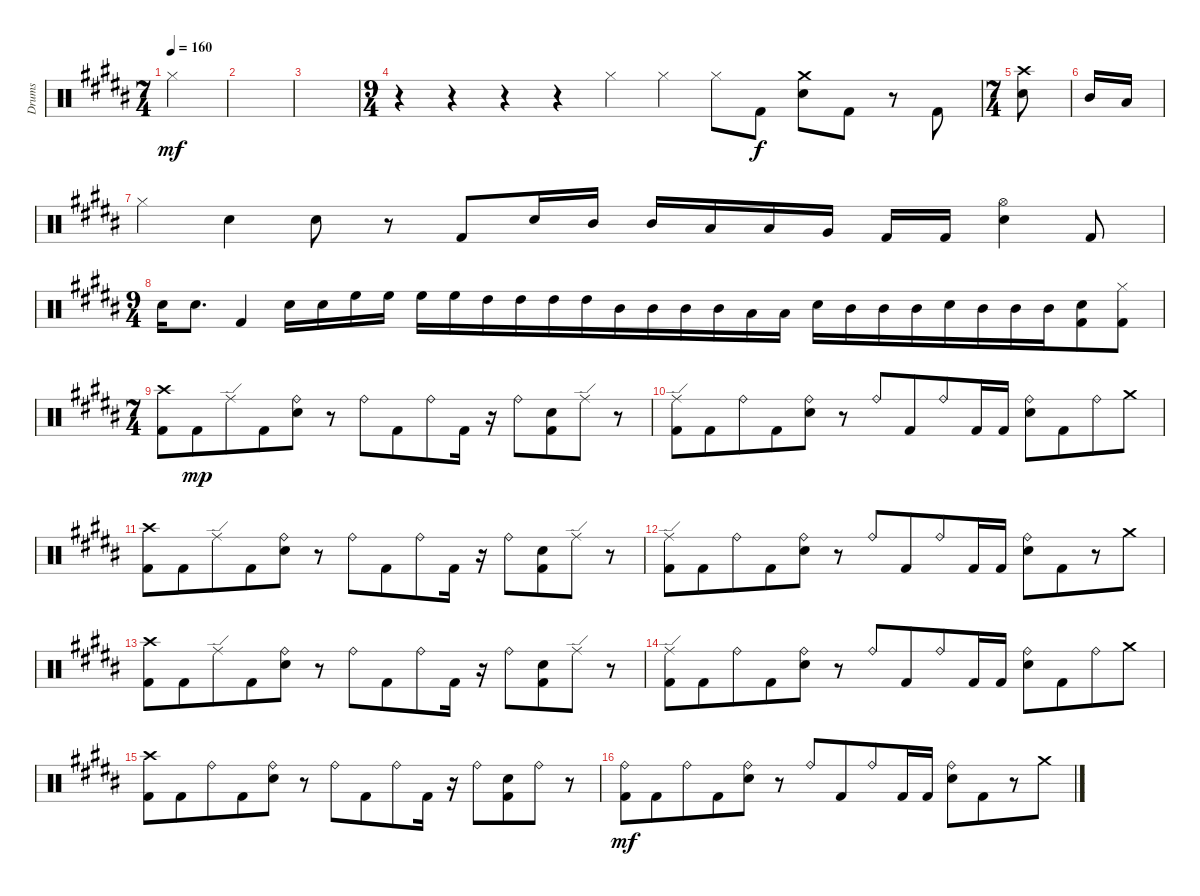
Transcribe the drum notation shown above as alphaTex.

\bracketExtendMode groupsimilarinstruments
\otherSystemsTrackNameOrientation horizontal
\track ("Drumkit" "Drums") {instrument percussion}
\staff {score}
\articulation defaults
\ts (7 4)
\tempo 160
\clef neutral
\ks b "Hi-Hat (closed)"{acc bb}.4{dy mf beam Down}
|
|
|
\ts (9 4)
r.4{beam Down} r.4{beam Down} r.4{beam Down} r.4{beam Down} "Hi-Hat (closed)"{acc bb}.4{beam Down} "Hi-Hat (closed)"{acc bb}.4{beam Down} "Hi-Hat (closed)"{acc bb}.8{beam Down} "Kick (hit) 2"{acc bb}.8{dy f beam Down} ("Snare (hit) 2"{acc bb} "Crash medium (hit)"{acc bb}).8{beam Down} "Kick (hit) 2"{acc bb}.8{beam Down} r.8{beam Down} "Kick (hit) 2"{acc bb}.8{beam Down} |
\ts (7 4)
("Crash high (hit)"{acc bb} "Snare (hit) 2"{acc bb}).8{beam Down} |
"Mid Tom (hit)"{acc bb}.16{beam Up} "Low Tom (hit)"{acc bb}.16{beam Up} |
"Hi-Hat (closed)"{acc bb}.4{beam Down} "Snare (hit) 2"{acc bb}.4{beam Down} "Snare (hit) 2"{acc bb}.8{beam Down} r.8{beam Down} "Kick (hit) 2"{acc bb}.8{beam Up} "Snare (hit) 2"{acc bb}.16{beam Up} "Mid Tom (hit)"{acc bb}.16{beam Up} "Mid Tom (hit)"{acc bb}.16{beam Up} "Low Tom (hit)"{acc bb}.16{beam Up} "Low Tom (hit)"{acc bb}.16{beam Up} "Very Low Tom (hit)"{acc bb}.16{beam Up} "Kick (hit) 2"{acc bb}.16{beam Up} "Kick (hit) 2"{acc bb}.16{beam Up} ("Snare (hit) 2"{acc bb} "Hi-Hat (open)"{acc bb}).4{beam Down} "Kick (hit) 2"{acc bb}.8{beam Up} |
\ts (9 4)
\beaming (8 6 6 6)
"Snare (hit) 2"{acc bb}.16{beam Down} "Snare (hit) 2"{acc bb}.8{d beam Down} "Kick (hit) 2"{acc bb}.4{beam Up} "Snare (hit) 2"{acc bb}.16{beam Down} "Snare (hit) 2"{acc bb}.16{beam Down} "High Floor Tom (hit)"{acc bb}.16{beam Down} "High Floor Tom (hit)"{acc bb}.16{beam Down} "High Floor Tom (hit)"{acc bb}.16{beam Down} "High Floor Tom (hit)"{acc bb}.16{beam Down} "High Tom (hit)"{acc bb}.16{beam Down} "High Tom (hit)"{acc bb}.16{beam Down} "High Tom (hit)"{acc bb}.16{beam Down} "High Tom (hit)"{acc bb}.16{beam Down} "Mid Tom (hit)"{acc bb}.16{beam Down} "Mid Tom (hit)"{acc bb}.16{beam Down} "Mid Tom (hit)"{acc bb}.16{beam Down} "Mid Tom (hit)"{acc bb}.16{beam Down} "Low Tom (hit)"{acc bb}.16{beam Down} "Low Tom (hit)"{acc bb}.16{beam Down} "Snare (hit) 2"{acc bb}.16{beam Down} "Mid Tom (hit)"{acc bb}.16{beam Down} "Mid Tom (hit)"{acc bb}.16{beam Down} "Mid Tom (hit)"{acc bb}.16{beam Down} "Snare (hit) 2"{acc bb}.16{beam Down} "Mid Tom (hit)"{acc bb}.16{beam Down} "Mid Tom (hit)"{acc bb}.16{beam Down} "Mid Tom (hit)"{acc bb}.16{beam Down} ("Snare (hit) 2"{acc bb} "Kick (hit) 2"{acc bb}).8{beam Down} ("Kick (hit) 2"{acc bb} "Hi-Hat (closed)"{acc bb}).8{beam Down} |
\ts (7 4)
\beaming (8 6 4 4)
("Crash high (hit)"{acc bb} "Kick (hit) 2"{acc bb}).8{beam Down} "Kick (hit) 2"{acc bb}.8{dy mp beam Down} "Ride (edge)"{acc bb}.8{beam Down} "Kick (hit) 2"{acc bb}.8{beam Down} ("Snare (hit) 2"{acc bb} "Ride (bell)"{acc bb}).8{beam Down} r.8{beam Down} "Ride (bell)"{acc bb}.8{beam Down} "Kick (hit) 2"{acc bb}.8{beam Down} "Ride (bell)"{acc bb}.8{beam Down} "Kick (hit) 2"{acc bb}.16{beam Down} r.16{beam Down} "Ride (bell)"{acc bb}.8{beam Down} ("Kick (hit) 2"{acc bb} "Snare (hit) 2"{acc bb}).8{beam Down} "Ride (edge)"{acc bb}.8{beam Down} r.8{beam Down} |
("Kick (hit) 2"{acc bb} "Ride (edge)"{acc bb}).8{beam Down} "Kick (hit) 2"{acc bb}.8{beam Down} "Ride (bell)"{acc bb}.8{beam Down} "Kick (hit) 2"{acc bb}.8{beam Down} ("Snare (hit) 2"{acc bb} "Ride (bell)"{acc bb}).8{beam Down} r.8{beam Down} "Ride (bell)"{acc bb}.8{beam Up} "Kick (hit) 2"{acc bb}.8{beam Up} "Ride (bell)"{acc bb}.8{beam Up} "Kick (hit) 2"{acc bb}.16{beam Up} "Kick (hit) 2"{acc bb}.16{beam Up} ("Snare (hit) 2"{acc bb} "Ride (bell)"{acc bb}).8{beam Down} "Kick (hit) 2"{acc bb}.8{beam Down} "Ride (bell)"{acc bb}.8{beam Down} "Crash medium (hit)"{acc bb}.8{beam Down} |
("Crash high (hit)"{acc bb} "Kick (hit) 2"{acc bb}).8{beam Down} "Kick (hit) 2"{acc bb}.8{beam Down} "Ride (edge)"{acc bb}.8{beam Down} "Kick (hit) 2"{acc bb}.8{beam Down} ("Snare (hit) 2"{acc bb} "Ride (bell)"{acc bb}).8{beam Down} r.8{beam Down} "Ride (bell)"{acc bb}.8{beam Down} "Kick (hit) 2"{acc bb}.8{beam Down} "Ride (bell)"{acc bb}.8{beam Down} "Kick (hit) 2"{acc bb}.16{beam Down} r.16{beam Down} "Ride (bell)"{acc bb}.8{beam Down} ("Kick (hit) 2"{acc bb} "Snare (hit) 2"{acc bb}).8{beam Down} "Ride (edge)"{acc bb}.8{beam Down} r.8{beam Down} |
("Kick (hit) 2"{acc bb} "Ride (edge)"{acc bb}).8{beam Down} "Kick (hit) 2"{acc bb}.8{beam Down} "Ride (bell)"{acc bb}.8{beam Down} "Kick (hit) 2"{acc bb}.8{beam Down} ("Snare (hit) 2"{acc bb} "Ride (bell)"{acc bb}).8{beam Down} r.8{beam Down} "Ride (bell)"{acc bb}.8{beam Up} "Kick (hit) 2"{acc bb}.8{beam Up} "Ride (bell)"{acc bb}.8{beam Up} "Kick (hit) 2"{acc bb}.16{beam Up} "Kick (hit) 2"{acc bb}.16{beam Up} ("Snare (hit) 2"{acc bb} "Ride (bell)"{acc bb}).8{beam Down} "Kick (hit) 2"{acc bb}.8{beam Down} r.8{beam Down} "Crash medium (hit)"{acc bb}.8{beam Down} |
("Crash high (hit)"{acc bb} "Kick (hit) 2"{acc bb}).8{beam Down} "Kick (hit) 2"{acc bb}.8{beam Down} "Ride (edge)"{acc bb}.8{beam Down} "Kick (hit) 2"{acc bb}.8{beam Down} ("Snare (hit) 2"{acc bb} "Ride (bell)"{acc bb}).8{beam Down} r.8{beam Down} "Ride (bell)"{acc bb}.8{beam Down} "Kick (hit) 2"{acc bb}.8{beam Down} "Ride (bell)"{acc bb}.8{beam Down} "Kick (hit) 2"{acc bb}.16{beam Down} r.16{beam Down} "Ride (bell)"{acc bb}.8{beam Down} ("Kick (hit) 2"{acc bb} "Snare (hit) 2"{acc bb}).8{beam Down} "Ride (edge)"{acc bb}.8{beam Down} r.8{beam Down} |
("Kick (hit) 2"{acc bb} "Ride (edge)"{acc bb}).8{beam Down} "Kick (hit) 2"{acc bb}.8{beam Down} "Ride (bell)"{acc bb}.8{beam Down} "Kick (hit) 2"{acc bb}.8{beam Down} ("Snare (hit) 2"{acc bb} "Ride (bell)"{acc bb}).8{beam Down} r.8{beam Down} "Ride (bell)"{acc bb}.8{beam Up} "Kick (hit) 2"{acc bb}.8{beam Up} "Ride (bell)"{acc bb}.8{beam Up} "Kick (hit) 2"{acc bb}.16{beam Up} "Kick (hit) 2"{acc bb}.16{beam Up} ("Snare (hit) 2"{acc bb} "Ride (bell)"{acc bb}).8{beam Down} "Kick (hit) 2"{acc bb}.8{beam Down} "Ride (bell)"{acc bb}.8{beam Down} "Crash medium (hit)"{acc bb}.8{beam Down} |
("Crash high (hit)"{acc bb} "Kick (hit) 2"{acc bb}).8{beam Down} "Kick (hit) 2"{acc bb}.8{beam Down} "Ride (bell)"{acc bb}.8{beam Down} "Kick (hit) 2"{acc bb}.8{beam Down} ("Snare (hit) 2"{acc bb} "Ride (bell)"{acc bb}).8{beam Down} r.8{beam Down} "Ride (bell)"{acc bb}.8{beam Down} "Kick (hit) 2"{acc bb}.8{beam Down} "Ride (bell)"{acc bb}.8{beam Down} "Kick (hit) 2"{acc bb}.16{beam Down} r.16{beam Down} "Ride (bell)"{acc bb}.8{beam Down} ("Kick (hit) 2"{acc bb} "Snare (hit) 2"{acc bb}).8{beam Down} "Ride (bell)"{acc bb}.8{beam Down} r.8{beam Down} |
("Kick (hit) 2"{acc bb} "Ride (bell)"{acc bb}).8{dy mf beam Down} "Kick (hit) 2"{acc bb}.8{beam Down} "Ride (bell)"{acc bb}.8{beam Down} "Kick (hit) 2"{acc bb}.8{beam Down} ("Snare (hit) 2"{acc bb} "Ride (bell)"{acc bb}).8{beam Down} r.8{beam Down} "Ride (bell)"{acc bb}.8{beam Up} "Kick (hit) 2"{acc bb}.8{beam Up} "Ride (bell)"{acc bb}.8{beam Up} "Kick (hit) 2"{acc bb}.16{beam Up} "Kick (hit) 2"{acc bb}.16{beam Up} ("Snare (hit) 2"{acc bb} "Ride (bell)"{acc bb}).8{beam Down} "Kick (hit) 2"{acc bb}.8{beam Down} r.8{beam Down} "Crash medium (hit)"{acc bb}.8{beam Down}
